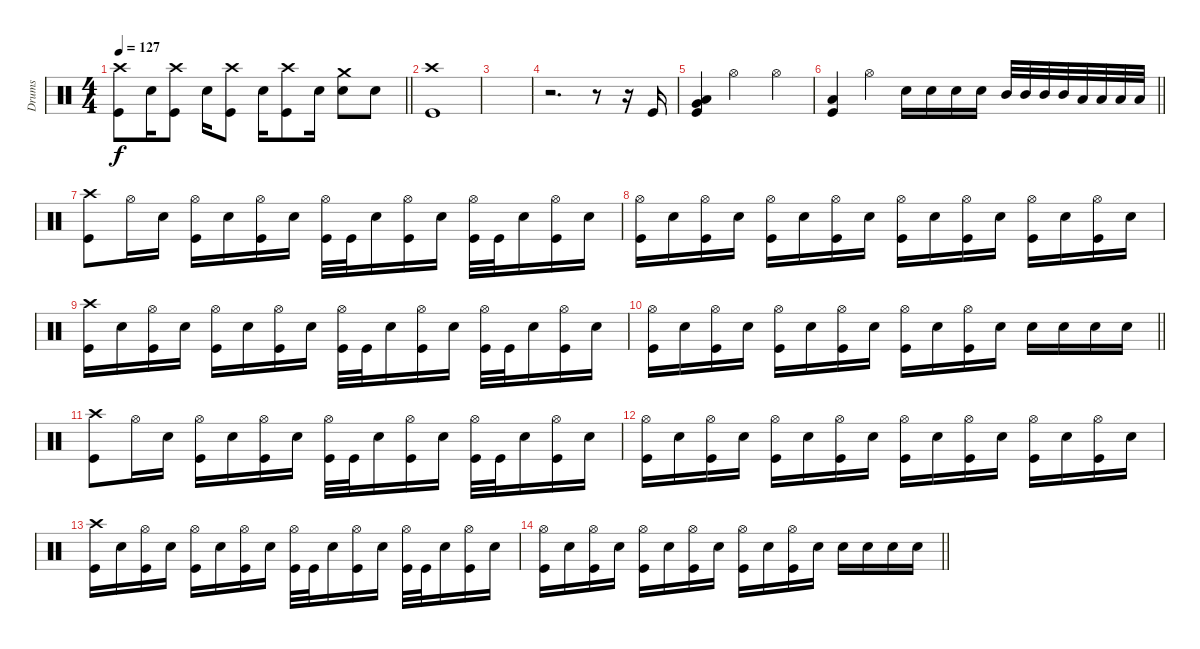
\track ("Drums" "Drums") {instrument percussion}
\staff
\articulation defaults
\ts (4 4)
\tempo 127
\clef neutral
\barLineRight lightlight
\ks c
("Crash high (hit)" "Kick (hit)").8{dy f} "Electric Snare (hit)".16 ("Crash high (hit)" "Kick (hit)").8 "Electric Snare (hit)".16 ("Crash high (hit)" "Kick (hit)").8 "Electric Snare (hit)".16 ("Crash high (hit)" "Kick (hit)").8 "Electric Snare (hit)".16 ("Crash medium (hit)" "Electric Snare (hit)").8 "Electric Snare (hit)".8 |
\section ("" "")
("Crash high (hit)" "Kick (hit)").1 |
|
r.2{d} r.8 r.16 "Kick (hit)".16 |
("Very Low Tom (hit)" "Low Floor Tom (hit)" "Kick (hit)").4 "Hi-Hat (open)".2 "Hi-Hat (open)".4 |
\barLineRight lightlight
("Low Floor Tom (hit)" "Kick (hit)").4 "Hi-Hat (open)".4 "Electric Snare (hit)".16 "Electric Snare (hit)".16 "Electric Snare (hit)".16 "Electric Snare (hit)".16 "Mid Tom (hit)".32 "Mid Tom (hit)".32 "Mid Tom (hit)".32 "Mid Tom (hit)".32 "Low Tom (hit)".32 "Low Tom (hit)".32 "Low Tom (hit)".32 "Low Tom (hit)".32 |
("Crash high (hit)" "Kick (hit)").8 "Hi-Hat (open)".16 "Electric Snare (hit)".16 ("Hi-Hat (open)" "Kick (hit)").16 "Electric Snare (hit)".16 ("Hi-Hat (open)" "Kick (hit)").16 "Electric Snare (hit)".16 ("Hi-Hat (open)" "Kick (hit)").32 "Kick (hit)".32 "Electric Snare (hit)".16 ("Hi-Hat (open)" "Kick (hit)").16 "Electric Snare (hit)".16 ("Hi-Hat (open)" "Kick (hit)").32 "Kick (hit)".32 "Electric Snare (hit)".16 ("Hi-Hat (open)" "Kick (hit)").16 "Electric Snare (hit)".16 |
("Hi-Hat (open)" "Kick (hit)").16 "Electric Snare (hit)".16 ("Hi-Hat (open)" "Kick (hit)").16 "Electric Snare (hit)".16 ("Hi-Hat (open)" "Kick (hit)").16 "Electric Snare (hit)".16 ("Hi-Hat (open)" "Kick (hit)").16 "Electric Snare (hit)".16 ("Hi-Hat (open)" "Kick (hit)").16 "Electric Snare (hit)".16 ("Hi-Hat (open)" "Kick (hit)").16 "Electric Snare (hit)".16 ("Hi-Hat (open)" "Kick (hit)").16 "Electric Snare (hit)".16 ("Hi-Hat (open)" "Kick (hit)").16 "Electric Snare (hit)".16 |
("Crash high (hit)" "Kick (hit)").16 "Electric Snare (hit)".16 ("Hi-Hat (open)" "Kick (hit)").16 "Electric Snare (hit)".16 ("Hi-Hat (open)" "Kick (hit)").16 "Electric Snare (hit)".16 ("Hi-Hat (open)" "Kick (hit)").16 "Electric Snare (hit)".16 ("Hi-Hat (open)" "Kick (hit)").32 "Kick (hit)".32 "Electric Snare (hit)".16 ("Hi-Hat (open)" "Kick (hit)").16 "Electric Snare (hit)".16 ("Hi-Hat (open)" "Kick (hit)").32 "Kick (hit)".32 "Electric Snare (hit)".16 ("Hi-Hat (open)" "Kick (hit)").16 "Electric Snare (hit)".16 |
\barLineRight lightlight
("Hi-Hat (open)" "Kick (hit)").16 "Electric Snare (hit)".16 ("Hi-Hat (open)" "Kick (hit)").16 "Electric Snare (hit)".16 ("Hi-Hat (open)" "Kick (hit)").16 "Electric Snare (hit)".16 ("Hi-Hat (open)" "Kick (hit)").16 "Electric Snare (hit)".16 ("Hi-Hat (open)" "Kick (hit)").16 "Electric Snare (hit)".16 ("Hi-Hat (open)" "Kick (hit)").16 "Electric Snare (hit)".16 "Electric Snare (hit)".16 "Electric Snare (hit)".16 "Electric Snare (hit)".16 "Electric Snare (hit)".16 |
("Crash high (hit)" "Kick (hit)").8 "Hi-Hat (open)".16 "Electric Snare (hit)".16 ("Hi-Hat (open)" "Kick (hit)").16 "Electric Snare (hit)".16 ("Hi-Hat (open)" "Kick (hit)").16 "Electric Snare (hit)".16 ("Hi-Hat (open)" "Kick (hit)").32 "Kick (hit)".32 "Electric Snare (hit)".16 ("Hi-Hat (open)" "Kick (hit)").16 "Electric Snare (hit)".16 ("Hi-Hat (open)" "Kick (hit)").32 "Kick (hit)".32 "Electric Snare (hit)".16 ("Hi-Hat (open)" "Kick (hit)").16 "Electric Snare (hit)".16 |
("Hi-Hat (open)" "Kick (hit)").16 "Electric Snare (hit)".16 ("Hi-Hat (open)" "Kick (hit)").16 "Electric Snare (hit)".16 ("Hi-Hat (open)" "Kick (hit)").16 "Electric Snare (hit)".16 ("Hi-Hat (open)" "Kick (hit)").16 "Electric Snare (hit)".16 ("Hi-Hat (open)" "Kick (hit)").16 "Electric Snare (hit)".16 ("Hi-Hat (open)" "Kick (hit)").16 "Electric Snare (hit)".16 ("Hi-Hat (open)" "Kick (hit)").16 "Electric Snare (hit)".16 ("Hi-Hat (open)" "Kick (hit)").16 "Electric Snare (hit)".16 |
("Crash high (hit)" "Kick (hit)").16 "Electric Snare (hit)".16 ("Hi-Hat (open)" "Kick (hit)").16 "Electric Snare (hit)".16 ("Hi-Hat (open)" "Kick (hit)").16 "Electric Snare (hit)".16 ("Hi-Hat (open)" "Kick (hit)").16 "Electric Snare (hit)".16 ("Hi-Hat (open)" "Kick (hit)").32 "Kick (hit)".32 "Electric Snare (hit)".16 ("Hi-Hat (open)" "Kick (hit)").16 "Electric Snare (hit)".16 ("Hi-Hat (open)" "Kick (hit)").32 "Kick (hit)".32 "Electric Snare (hit)".16 ("Hi-Hat (open)" "Kick (hit)").16 "Electric Snare (hit)".16 |
\barLineRight lightlight
("Hi-Hat (open)" "Kick (hit)").16 "Electric Snare (hit)".16 ("Hi-Hat (open)" "Kick (hit)").16 "Electric Snare (hit)".16 ("Hi-Hat (open)" "Kick (hit)").16 "Electric Snare (hit)".16 ("Hi-Hat (open)" "Kick (hit)").16 "Electric Snare (hit)".16 ("Hi-Hat (open)" "Kick (hit)").16 "Electric Snare (hit)".16 ("Hi-Hat (open)" "Kick (hit)").16 "Electric Snare (hit)".16 "Electric Snare (hit)".16 "Electric Snare (hit)".16 "Electric Snare (hit)".16 "Electric Snare (hit)".16
